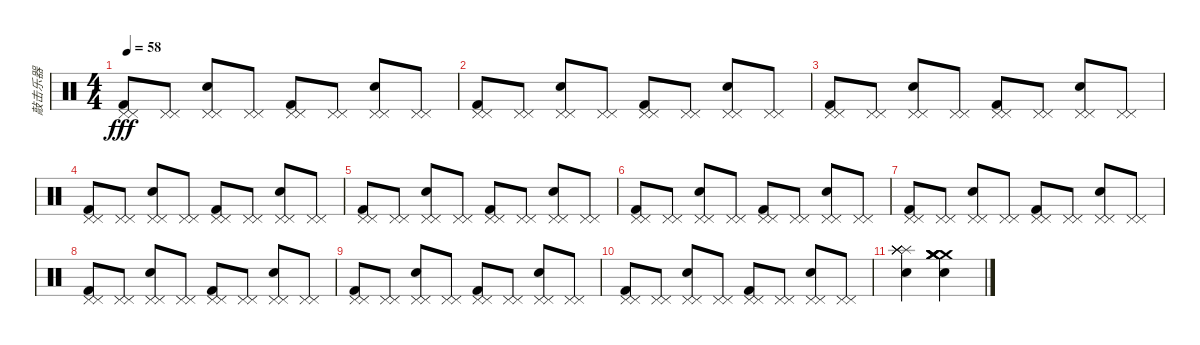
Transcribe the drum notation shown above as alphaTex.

\track ("敲击乐器" "敲击乐器") {instrument percussion}
\staff {score}
\articulation defaults
\ts (4 4)
\tempo 58
\clef neutral
\ks c
("Pedal Hi-Hat (hit)" "Pedal Hi-Hat (hit)" "Kick (hit) 2").8{dy fff} ("Pedal Hi-Hat (hit)" "Pedal Hi-Hat (hit)").8 ("Pedal Hi-Hat (hit)" "Pedal Hi-Hat (hit)" "Snare (hit) 2").8 ("Pedal Hi-Hat (hit)" "Pedal Hi-Hat (hit)").8 ("Pedal Hi-Hat (hit)" "Pedal Hi-Hat (hit)" "Kick (hit) 2").8 ("Pedal Hi-Hat (hit)" "Pedal Hi-Hat (hit)").8 ("Pedal Hi-Hat (hit)" "Pedal Hi-Hat (hit)" "Snare (hit) 2").8 ("Pedal Hi-Hat (hit)" "Pedal Hi-Hat (hit)").8 |
("Pedal Hi-Hat (hit)" "Pedal Hi-Hat (hit)" "Kick (hit) 2").8 ("Pedal Hi-Hat (hit)" "Pedal Hi-Hat (hit)").8 ("Pedal Hi-Hat (hit)" "Pedal Hi-Hat (hit)" "Snare (hit) 2").8 ("Pedal Hi-Hat (hit)" "Pedal Hi-Hat (hit)").8 ("Pedal Hi-Hat (hit)" "Pedal Hi-Hat (hit)" "Kick (hit) 2").8 ("Pedal Hi-Hat (hit)" "Pedal Hi-Hat (hit)").8 ("Pedal Hi-Hat (hit)" "Pedal Hi-Hat (hit)" "Snare (hit) 2").8 ("Pedal Hi-Hat (hit)" "Pedal Hi-Hat (hit)").8 |
("Pedal Hi-Hat (hit)" "Pedal Hi-Hat (hit)" "Kick (hit) 2").8 ("Pedal Hi-Hat (hit)" "Pedal Hi-Hat (hit)").8 ("Pedal Hi-Hat (hit)" "Pedal Hi-Hat (hit)" "Snare (hit) 2").8 ("Pedal Hi-Hat (hit)" "Pedal Hi-Hat (hit)").8 ("Pedal Hi-Hat (hit)" "Pedal Hi-Hat (hit)" "Kick (hit) 2").8 ("Pedal Hi-Hat (hit)" "Pedal Hi-Hat (hit)").8 ("Pedal Hi-Hat (hit)" "Pedal Hi-Hat (hit)" "Snare (hit) 2").8 ("Pedal Hi-Hat (hit)" "Pedal Hi-Hat (hit)").8 |
("Pedal Hi-Hat (hit)" "Pedal Hi-Hat (hit)" "Kick (hit) 2").8 ("Pedal Hi-Hat (hit)" "Pedal Hi-Hat (hit)").8 ("Pedal Hi-Hat (hit)" "Pedal Hi-Hat (hit)" "Snare (hit) 2").8 ("Pedal Hi-Hat (hit)" "Pedal Hi-Hat (hit)").8 ("Pedal Hi-Hat (hit)" "Pedal Hi-Hat (hit)" "Kick (hit) 2").8 ("Pedal Hi-Hat (hit)" "Pedal Hi-Hat (hit)").8 ("Pedal Hi-Hat (hit)" "Pedal Hi-Hat (hit)" "Snare (hit) 2").8 ("Pedal Hi-Hat (hit)" "Pedal Hi-Hat (hit)").8 |
("Pedal Hi-Hat (hit)" "Pedal Hi-Hat (hit)" "Kick (hit) 2").8 ("Pedal Hi-Hat (hit)" "Pedal Hi-Hat (hit)").8 ("Pedal Hi-Hat (hit)" "Pedal Hi-Hat (hit)" "Snare (hit) 2").8 ("Pedal Hi-Hat (hit)" "Pedal Hi-Hat (hit)").8 ("Pedal Hi-Hat (hit)" "Pedal Hi-Hat (hit)" "Kick (hit) 2").8 ("Pedal Hi-Hat (hit)" "Pedal Hi-Hat (hit)").8 ("Pedal Hi-Hat (hit)" "Pedal Hi-Hat (hit)" "Snare (hit) 2").8 ("Pedal Hi-Hat (hit)" "Pedal Hi-Hat (hit)").8 |
("Pedal Hi-Hat (hit)" "Pedal Hi-Hat (hit)" "Kick (hit) 2").8 ("Pedal Hi-Hat (hit)" "Pedal Hi-Hat (hit)").8 ("Pedal Hi-Hat (hit)" "Pedal Hi-Hat (hit)" "Snare (hit) 2").8 ("Pedal Hi-Hat (hit)" "Pedal Hi-Hat (hit)").8 ("Pedal Hi-Hat (hit)" "Pedal Hi-Hat (hit)" "Kick (hit) 2").8 ("Pedal Hi-Hat (hit)" "Pedal Hi-Hat (hit)").8 ("Pedal Hi-Hat (hit)" "Pedal Hi-Hat (hit)" "Snare (hit) 2").8 ("Pedal Hi-Hat (hit)" "Pedal Hi-Hat (hit)").8 |
("Pedal Hi-Hat (hit)" "Pedal Hi-Hat (hit)" "Kick (hit) 2").8 ("Pedal Hi-Hat (hit)" "Pedal Hi-Hat (hit)").8 ("Pedal Hi-Hat (hit)" "Pedal Hi-Hat (hit)" "Snare (hit) 2").8 ("Pedal Hi-Hat (hit)" "Pedal Hi-Hat (hit)").8 ("Pedal Hi-Hat (hit)" "Pedal Hi-Hat (hit)" "Kick (hit) 2").8 ("Pedal Hi-Hat (hit)" "Pedal Hi-Hat (hit)").8 ("Pedal Hi-Hat (hit)" "Pedal Hi-Hat (hit)" "Snare (hit) 2").8 ("Pedal Hi-Hat (hit)" "Pedal Hi-Hat (hit)").8 |
("Pedal Hi-Hat (hit)" "Pedal Hi-Hat (hit)" "Kick (hit) 2").8 ("Pedal Hi-Hat (hit)" "Pedal Hi-Hat (hit)").8 ("Pedal Hi-Hat (hit)" "Pedal Hi-Hat (hit)" "Snare (hit) 2").8 ("Pedal Hi-Hat (hit)" "Pedal Hi-Hat (hit)").8 ("Pedal Hi-Hat (hit)" "Pedal Hi-Hat (hit)" "Kick (hit) 2").8 ("Pedal Hi-Hat (hit)" "Pedal Hi-Hat (hit)").8 ("Pedal Hi-Hat (hit)" "Pedal Hi-Hat (hit)" "Snare (hit) 2").8 ("Pedal Hi-Hat (hit)" "Pedal Hi-Hat (hit)").8 |
("Pedal Hi-Hat (hit)" "Pedal Hi-Hat (hit)" "Kick (hit) 2").8 ("Pedal Hi-Hat (hit)" "Pedal Hi-Hat (hit)").8 ("Pedal Hi-Hat (hit)" "Pedal Hi-Hat (hit)" "Snare (hit) 2").8 ("Pedal Hi-Hat (hit)" "Pedal Hi-Hat (hit)").8 ("Pedal Hi-Hat (hit)" "Pedal Hi-Hat (hit)" "Kick (hit) 2").8 ("Pedal Hi-Hat (hit)" "Pedal Hi-Hat (hit)").8 ("Pedal Hi-Hat (hit)" "Pedal Hi-Hat (hit)" "Snare (hit) 2").8 ("Pedal Hi-Hat (hit)" "Pedal Hi-Hat (hit)").8 |
("Pedal Hi-Hat (hit)" "Pedal Hi-Hat (hit)" "Kick (hit) 2").8 ("Pedal Hi-Hat (hit)" "Pedal Hi-Hat (hit)").8 ("Pedal Hi-Hat (hit)" "Pedal Hi-Hat (hit)" "Snare (hit) 2").8 ("Pedal Hi-Hat (hit)" "Pedal Hi-Hat (hit)").8 ("Pedal Hi-Hat (hit)" "Pedal Hi-Hat (hit)" "Kick (hit) 2").8 ("Pedal Hi-Hat (hit)" "Pedal Hi-Hat (hit)").8 ("Pedal Hi-Hat (hit)" "Pedal Hi-Hat (hit)" "Snare (hit) 2").8 ("Pedal Hi-Hat (hit)" "Pedal Hi-Hat (hit)").8 |
("Splash (hit)" "Splash (hit)" "Snare (hit) 2" "Splash (hit)" "Splash (hit)" "Splash (hit)").4 ("Crash medium (hit)" "Crash medium (hit)" "Electric Snare (hit)" "Crash medium (hit)" "Crash medium (hit)" "Crash medium (hit)").4
